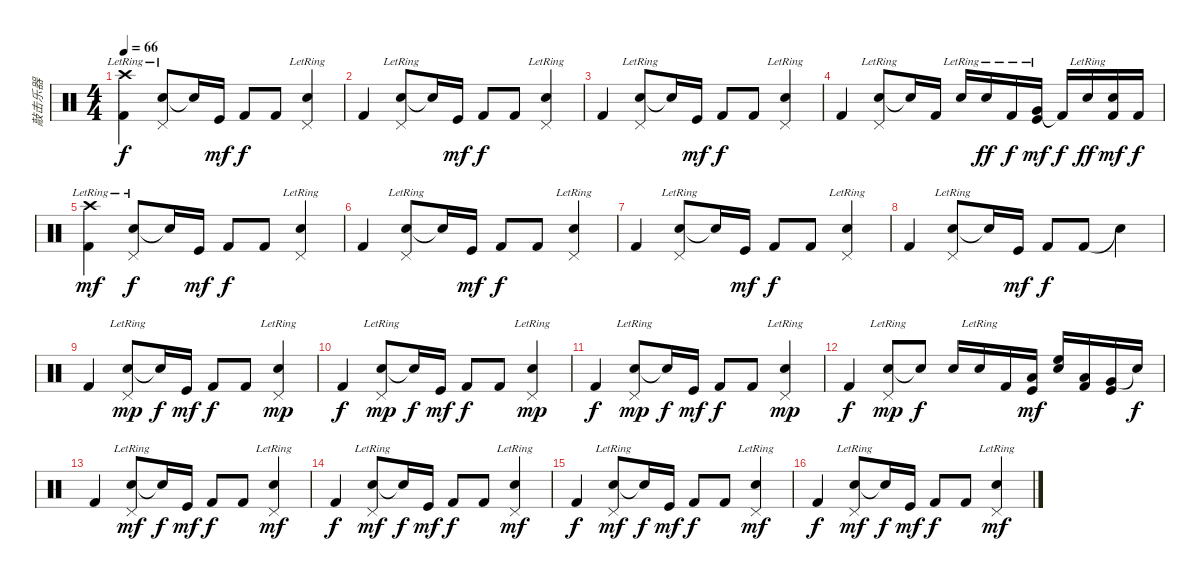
\track ("敲击乐器" "敲击乐器") {instrument percussion}
\staff {score}
\articulation defaults
\ts (4 4)
\tempo 66
\clef neutral
\ks c
("Kick (hit) 2" "Crash high (hit)"{lr}).4{dy f} ("Electric Snare (hit)" "Pedal Hi-Hat (hit)"{lr}).8 "Snare (hit)"{t}.16 "Kick (hit)".16{dy mf} "Kick (hit) 2".8{dy f} "Kick (hit) 2".8 ("Electric Snare (hit)" "Pedal Hi-Hat (hit)"{lr}).4 |
"Kick (hit) 2".4 ("Electric Snare (hit)" "Pedal Hi-Hat (hit)"{lr}).8 "Snare (hit)"{t}.16 "Kick (hit)".16{dy mf} "Kick (hit) 2".8{dy f} "Kick (hit) 2".8 ("Electric Snare (hit)" "Pedal Hi-Hat (hit)"{lr}).4 |
"Kick (hit) 2".4 ("Electric Snare (hit)" "Pedal Hi-Hat (hit)"{lr}).8 "Snare (hit)"{t}.16 "Kick (hit)".16{dy mf} "Kick (hit) 2".8{dy f} "Kick (hit) 2".8 ("Electric Snare (hit)" "Pedal Hi-Hat (hit)"{lr}).4 |
"Kick (hit) 2".4 ("Electric Snare (hit)" "Pedal Hi-Hat (hit)"{lr}).8 "Snare (hit)"{t}.16 "Kick (hit) 2".16 "Snare (hit) 2"{lr}.16 "Electric Snare (hit)"{lr}.16{dy ff} "Kick (hit) 2"{lr}.16{dy f} ("Very Low Tom (hit)"{lr} "Kick (hit)").16{dy mf} "Kick (hit) 2"{t}.16{dy f} "Snare (hit) 2"{lr}.16{dy ff} ("Electric Snare (hit)"{lr} "Kick (hit) 2"{lr}).16{dy mf} "Kick (hit) 2".16{dy f} |
("Kick (hit) 2" "Crash high (hit)"{lr}).4{dy mf} ("Electric Snare (hit)" "Pedal Hi-Hat (hit)"{lr}).8{dy f} "Snare (hit)"{t}.16 "Kick (hit)".16{dy mf} "Kick (hit) 2".8{dy f} "Kick (hit) 2".8 ("Electric Snare (hit)" "Pedal Hi-Hat (hit)"{lr}).4 |
"Kick (hit) 2".4 ("Electric Snare (hit)" "Pedal Hi-Hat (hit)"{lr}).8 "Snare (hit)"{t}.16 "Kick (hit)".16{dy mf} "Kick (hit) 2".8{dy f} "Kick (hit) 2".8 ("Electric Snare (hit)" "Pedal Hi-Hat (hit)"{lr}).4 |
"Kick (hit) 2".4 ("Electric Snare (hit)" "Pedal Hi-Hat (hit)"{lr}).8 "Snare (hit)"{t}.16 "Kick (hit)".16{dy mf} "Kick (hit) 2".8{dy f} "Kick (hit) 2".8 ("Electric Snare (hit)" "Pedal Hi-Hat (hit)"{lr}).4 |
"Kick (hit) 2".4 ("Electric Snare (hit)" "Pedal Hi-Hat (hit)"{lr}).8 "Snare (hit)"{t}.16 "Kick (hit)".16{dy mf} "Kick (hit) 2".8{dy f} "Kick (hit) 2".8 "Electric Snare (hit)"{t}.4 |
"Kick (hit) 2".4 ("Electric Snare (hit)" "Pedal Hi-Hat (hit)"{lr}).8{dy mp} "Snare (hit)"{t}.16{dy f} "Kick (hit)".16{dy mf} "Kick (hit) 2".8{dy f} "Kick (hit) 2".8 ("Electric Snare (hit)" "Pedal Hi-Hat (hit)"{lr}).4{dy mp} |
"Kick (hit) 2".4{dy f} ("Electric Snare (hit)" "Pedal Hi-Hat (hit)"{lr}).8{dy mp} "Snare (hit)"{t}.16{dy f} "Kick (hit)".16{dy mf} "Kick (hit) 2".8{dy f} "Kick (hit) 2".8 ("Electric Snare (hit)" "Pedal Hi-Hat (hit)"{lr}).4{dy mp} |
"Kick (hit) 2".4{dy f} ("Electric Snare (hit)" "Pedal Hi-Hat (hit)"{lr}).8{dy mp} "Snare (hit)"{t}.16{dy f} "Kick (hit)".16{dy mf} "Kick (hit) 2".8{dy f} "Kick (hit) 2".8 ("Electric Snare (hit)" "Pedal Hi-Hat (hit)"{lr}).4{dy mp} |
"Kick (hit) 2".4{dy f} ("Electric Snare (hit)" "Pedal Hi-Hat (hit)"{lr}).8{dy mp} "Snare (hit)"{t}.8{dy f} "Snare (hit) 2".16 "Electric Snare (hit)"{lr}.16 "Kick (hit) 2".16 ("Low Tom (hit)" "Kick (hit)").16{dy mf} ("High Floor Tom (hit)" "Electric Snare (hit)").16 ("Low Tom (hit)" "Kick (hit) 2").16 ("Very Low Tom (hit)" "Kick (hit)").16 "Snare (hit)"{t}.16{dy f} |
"Kick (hit) 2".4 ("Electric Snare (hit)" "Pedal Hi-Hat (hit)"{lr}).8{dy mf} "Snare (hit)"{t}.16{dy f} "Kick (hit)".16{dy mf} "Kick (hit) 2".8{dy f} "Kick (hit) 2".8 ("Electric Snare (hit)" "Pedal Hi-Hat (hit)"{lr}).4{dy mf} |
"Kick (hit) 2".4{dy f} ("Electric Snare (hit)" "Pedal Hi-Hat (hit)"{lr}).8{dy mf} "Snare (hit)"{t}.16{dy f} "Kick (hit)".16{dy mf} "Kick (hit) 2".8{dy f} "Kick (hit) 2".8 ("Electric Snare (hit)" "Pedal Hi-Hat (hit)"{lr}).4{dy mf} |
"Kick (hit) 2".4{dy f} ("Electric Snare (hit)" "Pedal Hi-Hat (hit)"{lr}).8{dy mf} "Snare (hit)"{t}.16{dy f} "Kick (hit)".16{dy mf} "Kick (hit) 2".8{dy f} "Kick (hit) 2".8 ("Electric Snare (hit)" "Pedal Hi-Hat (hit)"{lr}).4{dy mf} |
"Kick (hit) 2".4{dy f} ("Electric Snare (hit)" "Pedal Hi-Hat (hit)"{lr}).8{dy mf} "Snare (hit)"{t}.16{dy f} "Kick (hit)".16{dy mf} "Kick (hit) 2".8{dy f} "Kick (hit) 2".8 ("Electric Snare (hit)" "Pedal Hi-Hat (hit)"{lr}).4{dy mf}
